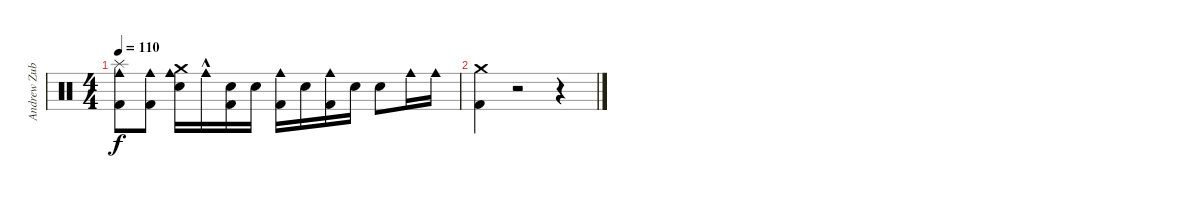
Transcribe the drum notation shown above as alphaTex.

\track ("Andrew Zubiszewski" "Andrew Zub") {instrument percussion}
\staff {score}
\articulation defaults
\ts (4 4)
\tempo 110
\clef neutral
\ks c
("Kick (hit) 2" "Splash (hit)" "Cowbell medium (hit)").8{dy f} ("Kick (hit) 2" "Cowbell medium (hit)").8 ("Electric Snare (hit)" "Cowbell medium (hit)" "Crash medium (hit)").16 "Cowbell medium (hit)"{hac}.16 ("Kick (hit) 2" "Electric Snare (hit)").16 "Electric Snare (hit)".16 ("Kick (hit) 2" "Cowbell medium (hit)").16 "Electric Snare (hit)".16 ("Kick (hit) 2" "Cowbell medium (hit)").16 "Electric Snare (hit)".16 "Electric Snare (hit)".8 "Cowbell medium (hit)".16 "Cowbell medium (hit)".16 |
("Crash medium (hit)" "Kick (hit) 2").4 r.2 r.4
